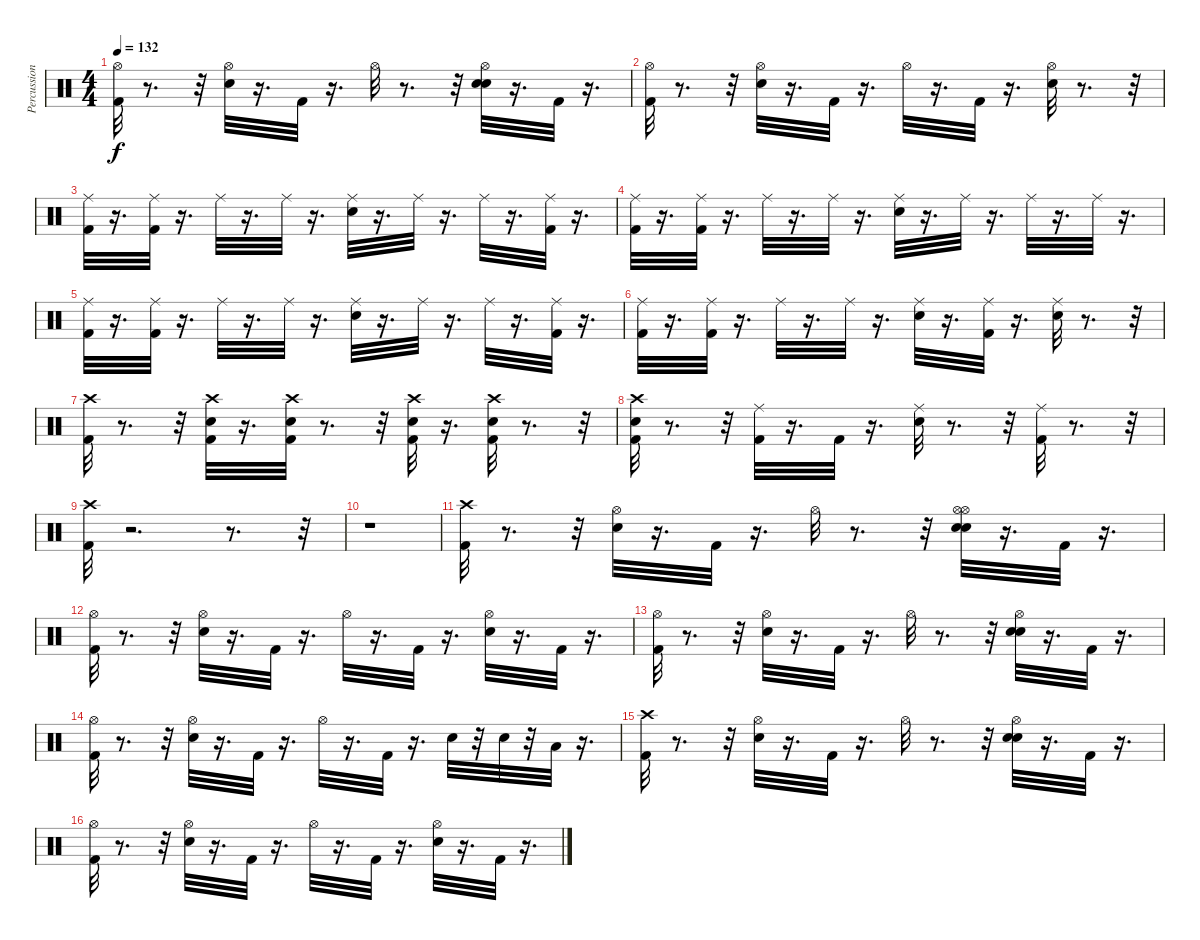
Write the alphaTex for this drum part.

\track ("Percussion" "Percussion") {instrument percussion}
\staff {score}
\articulation defaults
\ts (4 4)
\tempo 132
\clef neutral
\ks c
("Hi-Hat (open)" "Kick (hit) 2").32{dy f} r.8{d} r.32 ("Snare (hit) 2" "Hi-Hat (open)").32 r.16{d} "Kick (hit) 2".32 r.16{d} "Hi-Hat (open)".32 r.8{d} r.32 ("Snare (hit) 2" "Snare (hit) 2" "Hi-Hat (open)").32 r.16{d} "Kick (hit) 2".32 r.16{d} |
("Hi-Hat (open)" "Kick (hit) 2").32 r.8{d} r.32 ("Snare (hit) 2" "Hi-Hat (open)").32 r.16{d} "Kick (hit) 2".32 r.16{d} "Hi-Hat (open)".32 r.16{d} "Kick (hit) 2".32 r.16{d} ("Snare (hit) 2" "Hi-Hat (open)").32 r.8{d} r.32 |
("Ride (middle)" "Kick (hit) 2").32 r.16{d} ("Kick (hit) 2" "Ride (middle)").32 r.16{d} "Ride (middle)".32 r.16{d} "Ride (middle)".32 r.16{d} ("Ride (middle)" "Snare (hit) 2").32 r.16{d} "Ride (middle)".32 r.16{d} "Ride (middle)".32 r.16{d} ("Ride (middle)" "Kick (hit) 2").32 r.16{d} |
("Kick (hit) 2" "Ride (middle)").32 r.16{d} ("Kick (hit) 2" "Ride (middle)").32 r.16{d} "Ride (middle)".32 r.16{d} "Ride (middle)".32 r.16{d} ("Ride (middle)" "Snare (hit) 2").32 r.16{d} "Ride (middle)".32 r.16{d} "Ride (middle)".32 r.16{d} "Ride (middle)".32 r.16{d} |
("Ride (middle)" "Kick (hit) 2").32 r.16{d} ("Kick (hit) 2" "Ride (middle)").32 r.16{d} "Ride (middle)".32 r.16{d} "Ride (middle)".32 r.16{d} ("Ride (middle)" "Snare (hit) 2").32 r.16{d} "Ride (middle)".32 r.16{d} "Ride (middle)".32 r.16{d} ("Kick (hit) 2" "Ride (middle)").32 r.16{d} |
("Ride (middle)" "Kick (hit) 2").32 r.16{d} ("Kick (hit) 2" "Ride (middle)").32 r.16{d} "Ride (middle)".32 r.16{d} "Ride (middle)".32 r.16{d} ("Ride (middle)" "Snare (hit) 2").32 r.16{d} ("Ride (middle)" "Kick (hit) 2").32 r.16{d} ("Ride (middle)" "Snare (hit) 2").32 r.8{d} r.32 |
("Kick (hit) 2" "Crash high (hit)").32 r.8{d} r.32 ("Kick (hit) 2" "Crash high (hit)" "Snare (hit) 2").32 r.16{d} ("Snare (hit) 2" "Kick (hit) 2" "Crash high (hit)").32 r.8{d} r.32 ("Crash high (hit)" "Kick (hit) 2" "Snare (hit) 2").32 r.16{d} ("Snare (hit) 2" "Crash high (hit)" "Kick (hit) 2").32 r.8{d} r.32 |
("Kick (hit) 2" "Snare (hit) 2" "Crash high (hit)").32 r.8{d} r.32 ("Kick (hit) 2" "Ride (middle)").32 r.16{d} "Kick (hit) 2".32 r.16{d} ("Snare (hit) 2" "Ride (middle)").32 r.8{d} r.32 ("Ride (middle)" "Kick (hit) 2").32 r.8{d} r.32 |
("Kick (hit) 2" "Crash high (hit)").32 r.2{d} r.8{d} r.32 |
r.1 |
("Kick (hit) 2" "Crash high (hit)").32 r.8{d} r.32 ("Snare (hit) 2" "Hi-Hat (open)").32 r.16{d} "Kick (hit) 2".32 r.16{d} "Hi-Hat (open)".32 r.8{d} r.32 ("Snare (hit) 2" "Hi-Hat (open)" "Snare (hit) 2" "Hi-Hat (open)").32 r.16{d} "Kick (hit) 2".32 r.16{d} |
("Kick (hit) 2" "Hi-Hat (open)").32 r.8{d} r.32 ("Snare (hit) 2" "Hi-Hat (open)").32 r.16{d} "Kick (hit) 2".32 r.16{d} "Hi-Hat (open)".32 r.16{d} "Kick (hit) 2".32 r.16{d} ("Snare (hit) 2" "Hi-Hat (open)").32 r.16{d} "Kick (hit) 2".32 r.16{d} |
("Hi-Hat (open)" "Kick (hit) 2").32 r.8{d} r.32 ("Snare (hit) 2" "Hi-Hat (open)").32 r.16{d} "Kick (hit) 2".32 r.16{d} "Hi-Hat (open)".32 r.8{d} r.32 ("Snare (hit) 2" "Hi-Hat (open)" "Snare (hit) 2").32 r.16{d} "Kick (hit) 2".32 r.16{d} |
("Kick (hit) 2" "Hi-Hat (open)").32 r.8{d} r.32 ("Snare (hit) 2" "Hi-Hat (open)").32 r.16{d} "Kick (hit) 2".32 r.16{d} "Hi-Hat (open)".32 r.16{d} "Kick (hit) 2".32 r.16{d} "Snare (hit) 2".32 r.32 "Snare (hit) 2".32 r.32 "Low Floor Tom (hit)".32 r.16{d} |
("Kick (hit) 2" "Crash high (hit)").32 r.8{d} r.32 ("Snare (hit) 2" "Hi-Hat (open)").32 r.16{d} "Kick (hit) 2".32 r.16{d} "Hi-Hat (open)".32 r.8{d} r.32 ("Snare (hit) 2" "Hi-Hat (open)" "Snare (hit) 2").32 r.16{d} "Kick (hit) 2".32 r.16{d} |
("Kick (hit) 2" "Hi-Hat (open)").32 r.8{d} r.32 ("Snare (hit) 2" "Hi-Hat (open)").32 r.16{d} "Kick (hit) 2".32 r.16{d} "Hi-Hat (open)".32 r.16{d} "Kick (hit) 2".32 r.16{d} ("Hi-Hat (open)" "Snare (hit) 2").32 r.16{d} "Kick (hit) 2".32 r.16{d}
